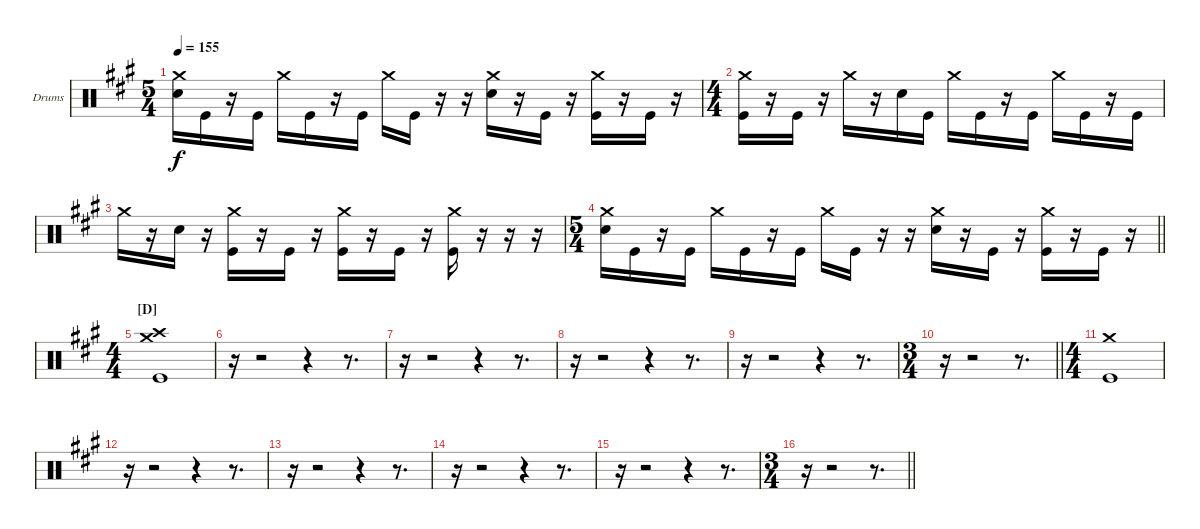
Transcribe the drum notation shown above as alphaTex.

\bracketExtendMode groupsimilarinstruments
\firstSystemTrackNameOrientation horizontal
\otherSystemsTrackNameOrientation horizontal
\track ("Drumkit" "Drums") {instrument percussion}
\staff {score}
\articulation defaults
\ts (5 4)
\beaming (8 2 2 2 2 2)
\tempo 155
\clef neutral
\ks a
("Crash medium (hit)" "Snare (hit) 2").16{dy f} "Kick (hit)".16 r.16 "Kick (hit)".16 "Crash medium (hit)".16 "Kick (hit)".16 r.16 "Kick (hit)".16 "Crash medium (hit)".16 "Kick (hit)".16 r.16 r.16 ("Crash medium (hit)" "Snare (hit) 2").16 r.16 "Kick (hit)".16 r.16 ("Crash medium (hit)" "Kick (hit)").16 r.16 "Kick (hit)".16 r.16 |
\ts (4 4)
\beaming (8 2 2 2 2 2)
("Crash medium (hit)" "Kick (hit)").16 r.16 "Kick (hit)".16 r.16 "Crash medium (hit)".16 r.16 "Snare (hit) 2".16 "Kick (hit)".16 "Crash medium (hit)".16 "Kick (hit)".16 r.16 "Kick (hit)".16 "Crash medium (hit)".16 "Kick (hit)".16 r.16 "Kick (hit)".16 |
"Crash medium (hit)".16 r.16 "Snare (hit) 2".16 r.16 ("Crash medium (hit)" "Kick (hit)").16 r.16 "Kick (hit)".16 r.16 ("Crash medium (hit)" "Kick (hit)").16 r.16 "Kick (hit)".16 r.16 ("Crash medium (hit)" "Kick (hit)").16 r.16 r.16 r.16 |
\ts (5 4)
\beaming (8 2 2 2 2 2)
\barLineRight lightlight
("Crash medium (hit)" "Snare (hit) 2").16 "Kick (hit)".16 r.16 "Kick (hit)".16 "Crash medium (hit)".16 "Kick (hit)".16 r.16 "Kick (hit)".16 "Crash medium (hit)".16 "Kick (hit)".16 r.16 r.16 ("Crash medium (hit)" "Snare (hit) 2").16 r.16 "Kick (hit)".16 r.16 ("Crash medium (hit)" "Kick (hit)").16 r.16 "Kick (hit)".16 r.16 |
\ts (4 4)
\beaming (8 2 2 2 2 2)
\section ("D" "")
("Crash medium (hit)" "Crash high (hit)" "Kick (hit)").1 |
r.16 r.2 r.4 r.8{d} |
r.16 r.2 r.4 r.8{d} |
r.16 r.2 r.4 r.8{d} |
r.16 r.2 r.4 r.8{d} |
\ts (3 4)
\beaming (8 2 2 2 2 2)
\barLineRight lightlight
r.16 r.2 r.8{d} |
\ts (4 4)
\beaming (8 2 2 2 2 2)
("Crash medium (hit)" "Kick (hit)").1 |
r.16 r.2 r.4 r.8{d} |
r.16 r.2 r.4 r.8{d} |
r.16 r.2 r.4 r.8{d} |
r.16 r.2 r.4 r.8{d} |
\ts (3 4)
\beaming (8 2 2 2 2 2)
\barLineRight lightlight
r.16 r.2 r.8{d}
